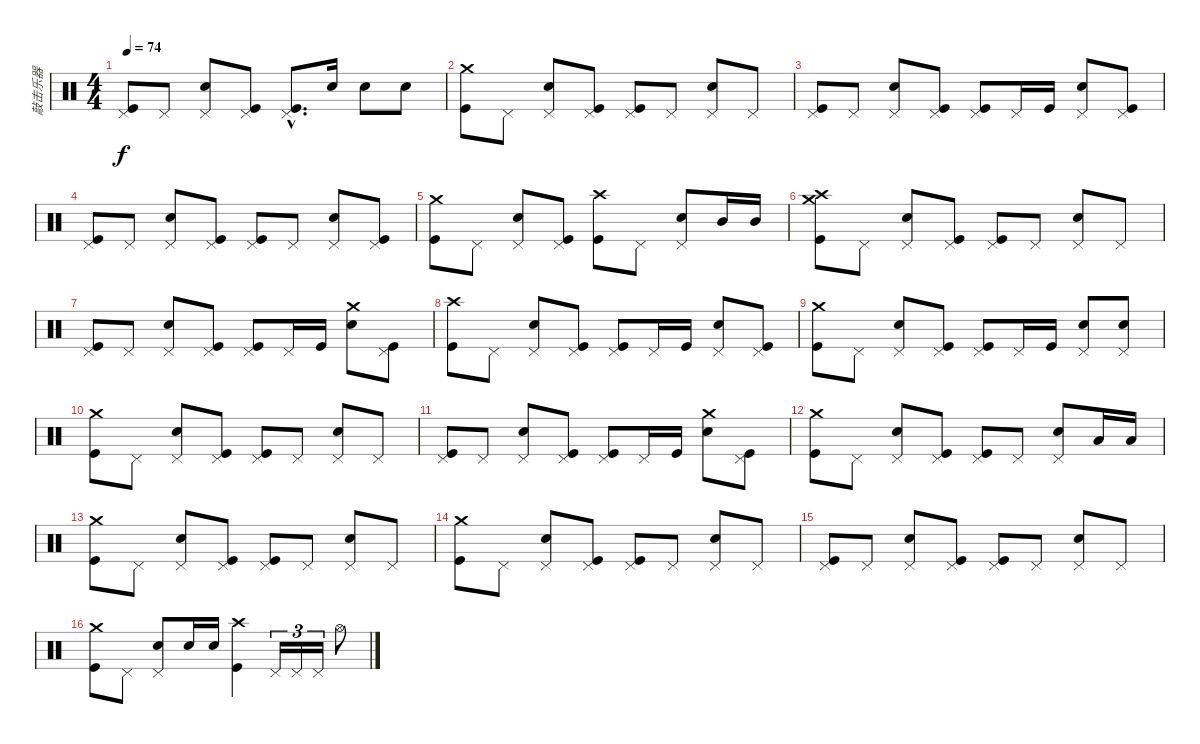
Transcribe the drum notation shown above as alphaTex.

\track ("敲击乐器" "敲击乐器") {instrument percussion}
\staff {score}
\articulation defaults
\ts (4 4)
\tempo 74
\clef neutral
\ks c
("Pedal Hi-Hat (hit)" "Kick (hit)").8{dy f} "Pedal Hi-Hat (hit)".8 ("Pedal Hi-Hat (hit)" "Snare (hit) 2").8 ("Pedal Hi-Hat (hit)" "Kick (hit)").8 ("Pedal Hi-Hat (hit)"{hac} "Kick (hit)"{hac}).8{d} "Snare (hit) 2".16 "Snare (hit) 2".8 "Snare (hit) 2".8 |
("Crash medium (hit)" "Kick (hit)").8 "Pedal Hi-Hat (hit)".8 ("Pedal Hi-Hat (hit)" "Snare (hit) 2").8 ("Pedal Hi-Hat (hit)" "Kick (hit)").8 ("Pedal Hi-Hat (hit)" "Kick (hit)").8 "Pedal Hi-Hat (hit)".8 ("Pedal Hi-Hat (hit)" "Snare (hit) 2").8 "Pedal Hi-Hat (hit)".8 |
("Pedal Hi-Hat (hit)" "Kick (hit)").8 "Pedal Hi-Hat (hit)".8 ("Pedal Hi-Hat (hit)" "Snare (hit) 2").8 ("Pedal Hi-Hat (hit)" "Kick (hit)").8 ("Pedal Hi-Hat (hit)" "Kick (hit)").8 "Pedal Hi-Hat (hit)".16 "Kick (hit)".16 ("Pedal Hi-Hat (hit)" "Snare (hit) 2").8 ("Pedal Hi-Hat (hit)" "Kick (hit)").8 |
("Pedal Hi-Hat (hit)" "Kick (hit)").8 "Pedal Hi-Hat (hit)".8 ("Pedal Hi-Hat (hit)" "Snare (hit) 2").8 ("Pedal Hi-Hat (hit)" "Kick (hit)").8 ("Pedal Hi-Hat (hit)" "Kick (hit)").8 "Pedal Hi-Hat (hit)".8 ("Pedal Hi-Hat (hit)" "Snare (hit) 2").8 ("Pedal Hi-Hat (hit)" "Kick (hit)").8 |
("Crash medium (hit)" "Kick (hit)").8 "Pedal Hi-Hat (hit)".8 ("Pedal Hi-Hat (hit)" "Snare (hit) 2").8 ("Pedal Hi-Hat (hit)" "Kick (hit)").8 ("Crash high (hit)" "Kick (hit)").8 "Pedal Hi-Hat (hit)".8 ("Pedal Hi-Hat (hit)" "Snare (hit) 2").8 "Mid Tom (hit)".16 "Mid Tom (hit)".16 |
("Crash high (hit)" "Crash medium (hit)" "Kick (hit)").8 "Pedal Hi-Hat (hit)".8 ("Pedal Hi-Hat (hit)" "Snare (hit) 2").8 ("Pedal Hi-Hat (hit)" "Kick (hit)").8 ("Pedal Hi-Hat (hit)" "Kick (hit)").8 "Pedal Hi-Hat (hit)".8 ("Pedal Hi-Hat (hit)" "Snare (hit) 2").8 "Pedal Hi-Hat (hit)".8 |
("Pedal Hi-Hat (hit)" "Kick (hit)").8 "Pedal Hi-Hat (hit)".8 ("Pedal Hi-Hat (hit)" "Snare (hit) 2").8 ("Pedal Hi-Hat (hit)" "Kick (hit)").8 ("Pedal Hi-Hat (hit)" "Kick (hit)").8 "Pedal Hi-Hat (hit)".16 "Kick (hit)".16 ("Crash medium (hit)" "Snare (hit) 2").8 ("Pedal Hi-Hat (hit)" "Kick (hit)").8 |
("Crash high (hit)" "Kick (hit)").8 "Pedal Hi-Hat (hit)".8 ("Pedal Hi-Hat (hit)" "Snare (hit) 2").8 ("Pedal Hi-Hat (hit)" "Kick (hit)").8 ("Pedal Hi-Hat (hit)" "Kick (hit)").8 "Pedal Hi-Hat (hit)".16 "Kick (hit)".16 ("Pedal Hi-Hat (hit)" "Snare (hit) 2").8 ("Pedal Hi-Hat (hit)" "Kick (hit)").8 |
("Crash medium (hit)" "Kick (hit)").8 "Pedal Hi-Hat (hit)".8 ("Pedal Hi-Hat (hit)" "Snare (hit) 2").8 ("Pedal Hi-Hat (hit)" "Kick (hit)").8 ("Pedal Hi-Hat (hit)" "Kick (hit)").8 "Pedal Hi-Hat (hit)".16 "Kick (hit)".16 ("Pedal Hi-Hat (hit)" "Snare (hit) 2").8 ("Pedal Hi-Hat (hit)" "Snare (hit) 2").8 |
("Crash medium (hit)" "Kick (hit)").8 "Pedal Hi-Hat (hit)".8 ("Pedal Hi-Hat (hit)" "Snare (hit) 2").8 ("Pedal Hi-Hat (hit)" "Kick (hit)").8 ("Pedal Hi-Hat (hit)" "Kick (hit)").8 "Pedal Hi-Hat (hit)".8 ("Pedal Hi-Hat (hit)" "Snare (hit) 2").8 "Pedal Hi-Hat (hit)".8 |
("Pedal Hi-Hat (hit)" "Kick (hit)").8 "Pedal Hi-Hat (hit)".8 ("Pedal Hi-Hat (hit)" "Snare (hit) 2").8 ("Pedal Hi-Hat (hit)" "Kick (hit)").8 ("Pedal Hi-Hat (hit)" "Kick (hit)").8 "Pedal Hi-Hat (hit)".16 "Kick (hit)".16 ("Crash medium (hit)" "Snare (hit) 2").8 ("Pedal Hi-Hat (hit)" "Kick (hit)").8 |
("Crash medium (hit)" "Kick (hit)").8 "Pedal Hi-Hat (hit)".8 ("Pedal Hi-Hat (hit)" "Snare (hit) 2").8 ("Pedal Hi-Hat (hit)" "Kick (hit)").8 ("Pedal Hi-Hat (hit)" "Kick (hit)").8 "Pedal Hi-Hat (hit)".8 ("Pedal Hi-Hat (hit)" "Snare (hit) 2").8 "Low Tom (hit)".16 "Low Tom (hit)".16 |
("Crash medium (hit)" "Kick (hit)").8 "Pedal Hi-Hat (hit)".8 ("Pedal Hi-Hat (hit)" "Snare (hit) 2").8 ("Pedal Hi-Hat (hit)" "Kick (hit)").8 ("Pedal Hi-Hat (hit)" "Kick (hit)").8 "Pedal Hi-Hat (hit)".8 ("Pedal Hi-Hat (hit)" "Snare (hit) 2").8 "Pedal Hi-Hat (hit)".8 |
("Crash medium (hit)" "Kick (hit)").8 "Pedal Hi-Hat (hit)".8 ("Pedal Hi-Hat (hit)" "Snare (hit) 2").8 ("Pedal Hi-Hat (hit)" "Kick (hit)").8 ("Pedal Hi-Hat (hit)" "Kick (hit)").8 "Pedal Hi-Hat (hit)".8 ("Pedal Hi-Hat (hit)" "Snare (hit) 2").8 "Pedal Hi-Hat (hit)".8 |
("Pedal Hi-Hat (hit)" "Kick (hit)").8 "Pedal Hi-Hat (hit)".8 ("Pedal Hi-Hat (hit)" "Snare (hit) 2").8 ("Pedal Hi-Hat (hit)" "Kick (hit)").8 ("Pedal Hi-Hat (hit)" "Kick (hit)").8 "Pedal Hi-Hat (hit)".8 ("Pedal Hi-Hat (hit)" "Snare (hit) 2").8 "Pedal Hi-Hat (hit)".8 |
("Crash medium (hit)" "Kick (hit)").8 "Pedal Hi-Hat (hit)".8 ("Pedal Hi-Hat (hit)" "Snare (hit) 2").8 "Snare (hit) 2".16 "Snare (hit) 2".16 ("Crash high (hit)" "Kick (hit)").4 "Pedal Hi-Hat (hit)".16{tu (3 2)} "Pedal Hi-Hat (hit)".16{tu (3 2)} "Pedal Hi-Hat (hit)".16{tu (3 2)} "Hi-Hat (open)".8
